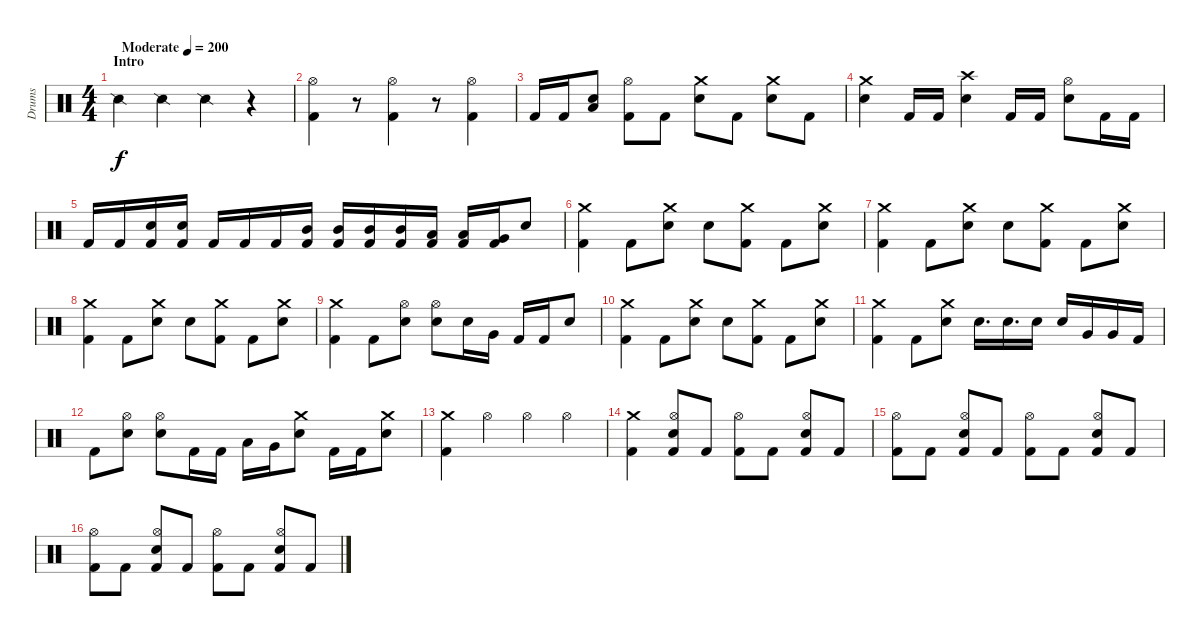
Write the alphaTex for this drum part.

\track ("Drums" "Drums") {instrument percussion}
\staff {score}
\articulation defaults
\ts (4 4)
\section ("" "Intro")
\tempo (200 "Moderate")
\clef neutral
\ks c "Snare (side stick) 2".4{dy f} "Snare (side stick) 2".4 "Snare (side stick) 2".4
r.4 |
("Kick (hit) 2" "Hi-Hat (open)").4 r.8 ("Kick (hit) 2" "Hi-Hat (open)").4 r.8 ("Kick (hit) 2" "Hi-Hat (open)").4 |
"Kick (hit) 2".16 "Kick (hit) 2".16 ("Low Floor Tom (hit)" "Electric Snare (hit)").8 ("Kick (hit) 2" "Hi-Hat (open)").8 "Kick (hit) 2".8 ("Electric Snare (hit)" "Crash medium (hit)").8 "Kick (hit) 2".8 ("Electric Snare (hit)" "Crash medium (hit)").8 "Kick (hit) 2".8 |
("Electric Snare (hit)" "Crash medium (hit)").4 "Kick (hit) 2".16 "Kick (hit) 2".16 ("Electric Snare (hit)" "Crash high (hit)").4 "Kick (hit) 2".16 "Kick (hit) 2".16 ("Electric Snare (hit)" "Hi-Hat (open)").8 "Kick (hit) 2".16 "Kick (hit) 2".16 |
"Kick (hit) 2".16 "Kick (hit) 2".16 ("Electric Snare (hit)" "Kick (hit) 2").16 ("Electric Snare (hit)" "Kick (hit) 2").16 "Kick (hit) 2".16 "Kick (hit) 2".16 "Kick (hit) 2".16 ("Mid Tom (hit)" "Kick (hit) 2").16 ("Mid Tom (hit)" "Kick (hit) 2").16 ("Mid Tom (hit)" "Kick (hit) 2").16 ("Mid Tom (hit)" "Kick (hit) 2").16 ("Low Tom (hit)" "Kick (hit) 2").16 ("Low Tom (hit)" "Kick (hit) 2").16 ("Very Low Tom (hit)" "Kick (hit) 2").16 "Electric Snare (hit)".8 |
("Kick (hit) 2" "Crash medium (hit)").4 "Kick (hit) 2".8 ("Electric Snare (hit)" "Crash medium (hit)").8 "Electric Snare (hit)".8 ("Kick (hit) 2" "Crash medium (hit)").8 "Kick (hit) 2".8 ("Crash medium (hit)" "Electric Snare (hit)").8 |
("Kick (hit) 2" "Crash medium (hit)").4 "Kick (hit) 2".8 ("Electric Snare (hit)" "Crash medium (hit)").8 "Electric Snare (hit)".8 ("Kick (hit) 2" "Crash medium (hit)").8 "Kick (hit) 2".8 ("Crash medium (hit)" "Electric Snare (hit)").8 |
("Kick (hit) 2" "Crash medium (hit)").4 "Kick (hit) 2".8 ("Electric Snare (hit)" "Crash medium (hit)").8 "Electric Snare (hit)".8 ("Kick (hit) 2" "Crash medium (hit)").8 "Kick (hit) 2".8 ("Crash medium (hit)" "Electric Snare (hit)").8 |
("Kick (hit) 2" "Crash medium (hit)").4 "Kick (hit) 2".8 ("Electric Snare (hit)" "Hi-Hat (open)").8 ("Electric Snare (hit)" "Hi-Hat (open)").8 "Electric Snare (hit)".16 "Very Low Tom (hit)".16 "Kick (hit) 2".16 "Kick (hit) 2".16 "Electric Snare (hit)".8 |
("Kick (hit) 2" "Crash medium (hit)").4 "Kick (hit) 2".8 ("Electric Snare (hit)" "Crash medium (hit)").8 "Electric Snare (hit)".8 ("Kick (hit) 2" "Crash medium (hit)").8 "Kick (hit) 2".8 ("Crash medium (hit)" "Electric Snare (hit)").8 |
("Kick (hit) 2" "Crash medium (hit)").4 "Kick (hit) 2".8 ("Electric Snare (hit)" "Crash medium (hit)").8 "Electric Snare (hit)".16{d} "Electric Snare (hit)".16{d} "Electric Snare (hit)".16 "Electric Snare (hit)".16 "Very Low Tom (hit)".16 "Very Low Tom (hit)".16 "Kick (hit) 2".16 |
"Kick (hit) 2".8 ("Electric Snare (hit)" "Hi-Hat (open)").8 ("Electric Snare (hit)" "Hi-Hat (open)").8 "Kick (hit) 2".16 "Kick (hit) 2".16 "Low Tom (hit)".16 "Very Low Tom (hit)".16 ("Electric Snare (hit)" "Crash medium (hit)").8 "Kick (hit) 2".16 "Kick (hit) 2".16 ("Electric Snare (hit)" "Crash medium (hit)").8 |
("Kick (hit) 2" "Crash medium (hit)").4 "Hi-Hat (open)".4 "Hi-Hat (open)".4 "Hi-Hat (open)".4 |
("Crash medium (hit)" "Kick (hit) 2").4 ("Hi-Hat (open)" "Electric Snare (hit)" "Kick (hit) 2").8 "Kick (hit) 2".8 ("Hi-Hat (open)" "Kick (hit) 2").8 "Kick (hit) 2".8 ("Hi-Hat (open)" "Electric Snare (hit)" "Kick (hit) 2").8 "Kick (hit) 2".8 |
("Hi-Hat (open)" "Kick (hit) 2").8 "Kick (hit) 2".8 ("Hi-Hat (open)" "Electric Snare (hit)" "Kick (hit) 2").8 "Kick (hit) 2".8 ("Hi-Hat (open)" "Kick (hit) 2").8 "Kick (hit) 2".8 ("Hi-Hat (open)" "Electric Snare (hit)" "Kick (hit) 2").8 "Kick (hit) 2".8 |
("Hi-Hat (open)" "Kick (hit) 2").8 "Kick (hit) 2".8 ("Hi-Hat (open)" "Electric Snare (hit)" "Kick (hit) 2").8 "Kick (hit) 2".8 ("Hi-Hat (open)" "Kick (hit) 2").8 "Kick (hit) 2".8 ("Hi-Hat (open)" "Electric Snare (hit)" "Kick (hit) 2").8 "Kick (hit) 2".8
